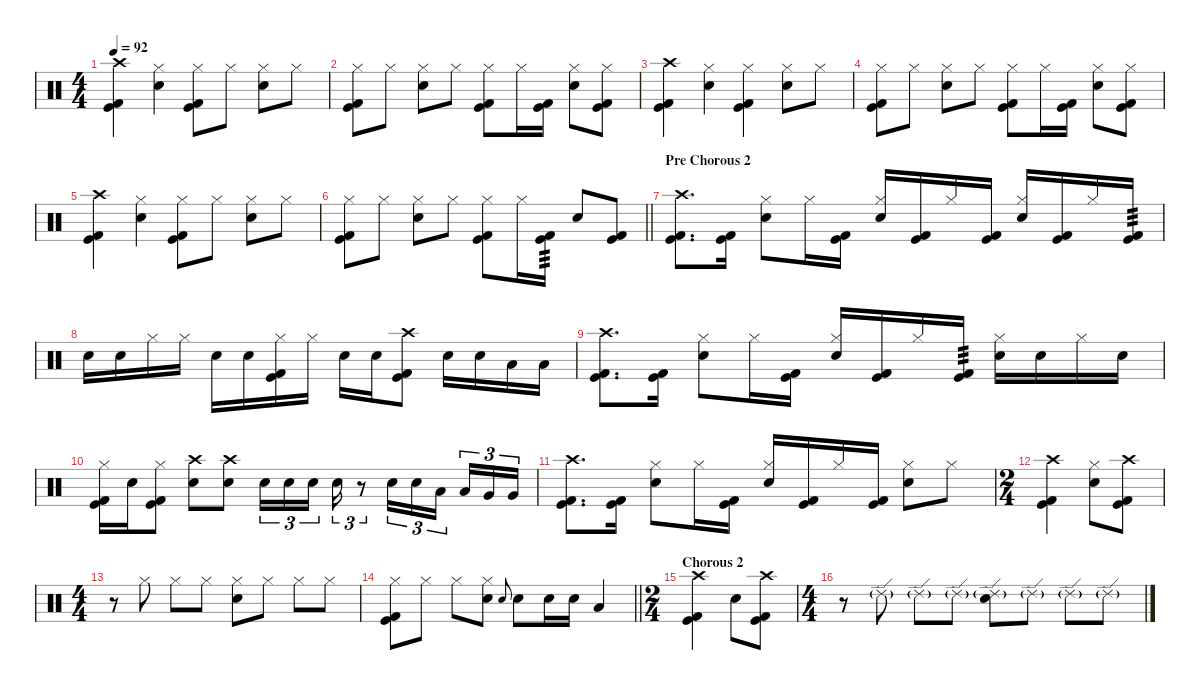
\defaultSystemsLayout 4
\hideDynamics
\bracketExtendMode nobrackets
\singleTrackTrackNamePolicy hidden
\multiTrackTrackNamePolicy hidden
\otherSystemsTrackNameOrientation horizontal
\track ("Lars" "drm.") {instrument percussion}
\staff {score}
\articulation defaults
\ts (4 4)
\tempo 92
\clef neutral
\ks c
("Crash high (hit)" "Kick (hit)" "Kick (hit) 2").4{dy f beam Down} ("Hi-Hat (closed)" "Snare (hit) 2").4{beam Down} ("Hi-Hat (closed)" "Kick (hit)" "Kick (hit) 2").8{beam Down} "Hi-Hat (closed)".8{beam Down} ("Hi-Hat (closed)" "Snare (hit) 2").8{beam Down} "Hi-Hat (closed)".8{beam Down} |
("Hi-Hat (closed)" "Kick (hit)" "Kick (hit) 2").8{beam Down} "Hi-Hat (closed)".8{beam Down} ("Hi-Hat (closed)" "Snare (hit) 2").8{beam Down} "Hi-Hat (closed)".8{beam Down} ("Hi-Hat (closed)" "Kick (hit)" "Kick (hit) 2").8{beam Down} "Hi-Hat (closed)".16{beam Down} ("Kick (hit)" "Kick (hit) 2").16{beam Down} ("Hi-Hat (closed)" "Snare (hit) 2").8{beam Down} ("Hi-Hat (closed)" "Kick (hit)" "Kick (hit) 2").8{beam Down} |
("Crash high (hit)" "Kick (hit)" "Kick (hit) 2").4{beam Down} ("Hi-Hat (closed)" "Snare (hit) 2").4{beam Down} ("Hi-Hat (closed)" "Kick (hit)" "Kick (hit) 2").4{beam Down} ("Hi-Hat (closed)" "Snare (hit) 2").8{beam Down} "Hi-Hat (closed)".8{beam Down} |
("Hi-Hat (closed)" "Kick (hit)" "Kick (hit) 2").8{beam Down} "Hi-Hat (closed)".8{beam Down} ("Hi-Hat (closed)" "Snare (hit) 2").8{beam Down} "Hi-Hat (closed)".8{beam Down} ("Hi-Hat (closed)" "Kick (hit)" "Kick (hit) 2").8{beam Down} "Hi-Hat (closed)".16{beam Down} ("Kick (hit)" "Kick (hit) 2").16{beam Down} ("Hi-Hat (closed)" "Snare (hit) 2").8{beam Down} ("Hi-Hat (closed)" "Kick (hit)" "Kick (hit) 2").8{beam Down} |
("Crash high (hit)" "Kick (hit)" "Kick (hit) 2").4{beam Down} ("Hi-Hat (closed)" "Snare (hit) 2").4{beam Down} ("Hi-Hat (closed)" "Kick (hit)" "Kick (hit) 2").8{beam Down} "Hi-Hat (closed)".8{beam Down} ("Hi-Hat (closed)" "Snare (hit) 2").8{beam Down} "Hi-Hat (closed)".8{beam Down} |
\barLineRight lightlight
("Hi-Hat (closed)" "Kick (hit)" "Kick (hit) 2").8{beam Down} "Hi-Hat (closed)".8{beam Down} ("Hi-Hat (closed)" "Snare (hit) 2").8{beam Down} "Hi-Hat (closed)".8{beam Down} ("Hi-Hat (closed)" "Kick (hit)" "Kick (hit) 2").8{beam Down} "Hi-Hat (closed)".16{beam Down} ("Kick (hit)" "Kick (hit) 2").16{tp 3 beam Down} "Snare (hit) 2".8{beam Up} ("Kick (hit)" "Kick (hit) 2").8{beam Up} |
\section ("" "Pre Chorous 2")
("Crash high (hit)" "Kick (hit)" "Kick (hit) 2").8{d beam Down} ("Kick (hit)" "Kick (hit) 2").16{beam Down} ("Hi-Hat (closed)" "Snare (hit) 2").8{beam Down} "Hi-Hat (closed)".16{beam Down} ("Kick (hit)" "Kick (hit) 2").16{beam Down} ("Hi-Hat (closed)" "Snare (hit) 2").16{beam Up} ("Kick (hit)" "Kick (hit) 2").16{beam Up} "Hi-Hat (closed)".16{beam Up} ("Kick (hit)" "Kick (hit) 2").16{beam Up} ("Hi-Hat (closed)" "Snare (hit) 2").16{beam Up} ("Kick (hit)" "Kick (hit) 2").16{beam Up} "Hi-Hat (closed)".16{beam Up} ("Kick (hit)" "Kick (hit) 2").16{tp 3 beam Up} |
"Snare (hit) 2".16{beam Down} "Snare (hit) 2".16{beam Down} "Hi-Hat (closed)".16{beam Down} "Hi-Hat (closed)".16{beam Down} "Snare (hit) 2".16{beam Down} "Snare (hit) 2".16{beam Down} ("Hi-Hat (closed)" "Kick (hit)" "Kick (hit) 2").16{beam Down} "Hi-Hat (closed)".16{beam Down} "Snare (hit) 2".16{beam Down} "Snare (hit) 2".16{beam Down} ("Crash high (hit)" "Kick (hit)" "Kick (hit) 2").8{beam Down} "Snare (hit) 2".16{beam Down} "Snare (hit) 2".16{beam Down} "Low Tom (hit)".16{beam Down} "Low Tom (hit)".16{beam Down} |
("Crash high (hit)" "Kick (hit)" "Kick (hit) 2").8{d beam Down} ("Kick (hit)" "Kick (hit) 2").16{beam Down} ("Hi-Hat (closed)" "Snare (hit) 2").8{beam Down} "Hi-Hat (closed)".16{beam Down} ("Kick (hit)" "Kick (hit) 2").16{beam Down} ("Hi-Hat (closed)" "Snare (hit) 2").16{beam Up} ("Kick (hit)" "Kick (hit) 2").16{beam Up} "Hi-Hat (closed)".16{beam Up} ("Kick (hit)" "Kick (hit) 2").16{tp 3 beam Up} ("Hi-Hat (closed)" "Snare (hit) 2").16{beam Down} "Snare (hit) 2".16{beam Down} "Hi-Hat (closed)".16{beam Down} "Snare (hit) 2".16{beam Down} |
("Hi-Hat (closed)" "Kick (hit)" "Kick (hit) 2").16{beam Down} "Snare (hit) 2".16{beam Down} ("Hi-Hat (closed)" "Kick (hit)" "Kick (hit) 2").8{beam Down} ("Crash high (hit)" "Snare (hit) 2").8{beam Down} ("Crash high (hit)" "Snare (hit) 2").8{beam Down} "Snare (hit) 2".16{tu (3 2) beam Down} "Snare (hit) 2".16{tu (3 2) beam Down} "Snare (hit) 2".16{tu (3 2) beam Down} "Snare (hit) 2".16{tu (3 2) beam Down} r.8{tu (3 2) beam Down} "Snare (hit) 2".16{tu (3 2) beam Down} "Snare (hit) 2".16{tu (3 2) beam Down} "Low Tom (hit)".16{tu (3 2) beam Down} "Low Tom (hit)".16{tu (3 2) beam Up} "Very Low Tom (hit)".16{tu (3 2) beam Up} "Very Low Tom (hit)".16{tu (3 2) beam Up} |
("Crash high (hit)" "Kick (hit)" "Kick (hit) 2").8{d beam Down} ("Kick (hit)" "Kick (hit) 2").16{beam Down} ("Hi-Hat (closed)" "Snare (hit) 2").8{beam Down} "Hi-Hat (closed)".16{beam Down} ("Kick (hit)" "Kick (hit) 2").16{beam Down} ("Hi-Hat (closed)" "Snare (hit) 2").16{beam Up} ("Kick (hit)" "Kick (hit) 2").16{beam Up} "Hi-Hat (closed)".16{beam Up} ("Kick (hit)" "Kick (hit) 2").16{beam Up} ("Hi-Hat (closed)" "Snare (hit) 2").8{beam Down} "Hi-Hat (closed)".8{beam Down} |
\ts (2 4)
\beaming (8 2 2 2 2)
("Crash high (hit)" "Kick (hit)" "Kick (hit) 2").4{beam Down} ("Hi-Hat (closed)" "Snare (hit) 2").8{beam Down} ("Crash high (hit)" "Kick (hit)" "Kick (hit) 2").8{beam Down} |
\ts (4 4)
\beaming (8 2 2 2 2)
r.8{beam Down} "Hi-Hat (closed)".8{beam Down} "Hi-Hat (closed)".8{beam Down} "Hi-Hat (closed)".8{beam Down} ("Hi-Hat (closed)" "Snare (hit) 2").8{beam Down} "Hi-Hat (closed)".8{beam Down} "Hi-Hat (closed)".8{beam Down} "Hi-Hat (closed)".8{beam Down} |
\barLineRight lightlight
("Hi-Hat (closed)" "Kick (hit)" "Kick (hit) 2").8{beam Down} "Hi-Hat (closed)".8{beam Down} "Hi-Hat (closed)".8{beam Down} ("Hi-Hat (closed)" "Snare (hit) 2").8{beam Down} "Electric Snare (hit)".8{gr onbeat dy mf beam Up} "Snare (hit) 2".8{dy f beam Down} "Snare (hit) 2".16{beam Down} "Snare (hit) 2".16{beam Down} "Low Tom (hit)".4{beam Up} |
\ts (2 4)
\beaming (8 2 2 2 2)
\section ("" "Chorous 2")
("Crash high (hit)" "Kick (hit)" "Kick (hit) 2").4{beam Down} "Snare (hit) 2".8{beam Down} ("Crash high (hit)" "Kick (hit)" "Kick (hit) 2").8{beam Down} |
\ts (4 4)
\beaming (8 2 2 2 2)
r.8{beam Down} "Ride (edge) 2"{g}.8{dy mf beam Down} "Ride (edge) 2"{g}.8{beam Down} "Ride (edge) 2"{g}.8{beam Down} ("Ride (edge) 2"{g} "Snare (hit) 2").8{dy f beam Down} "Ride (edge) 2"{g}.8{dy mf beam Down} "Ride (edge) 2"{g}.8{beam Down} "Ride (edge) 2"{g}.8{beam Down}
